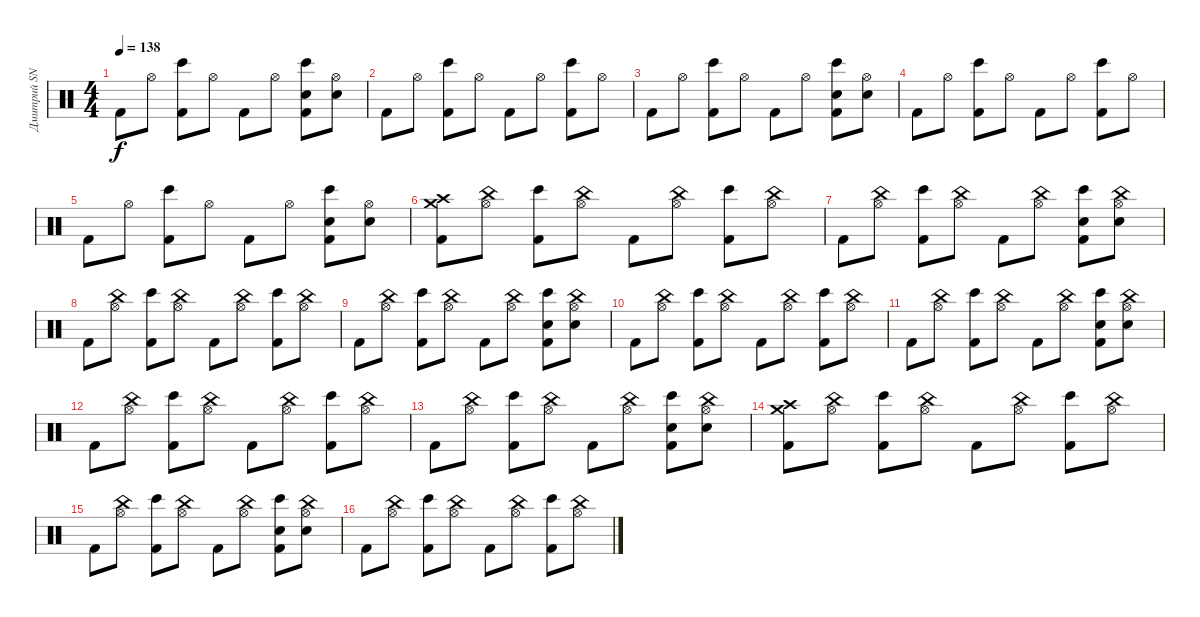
\track ("Дмитрий SNAKE Хакимов (ударные)" "Дмитрий SN") {instrument percussion}
\staff {score}
\articulation defaults
\ts (4 4)
\tempo 138
\clef neutral
\ks c "Kick (hit) 2".8{dy f} "Hi-Hat (open)".8
("Bongo High (hit)" "Kick (hit) 2").8 "Hi-Hat (open)".8 "Kick (hit) 2".8 "Hi-Hat (open)".8 ("Bongo High (hit)" "Electric Snare (hit)" "Kick (hit) 2").8 ("Hi-Hat (open)" "Electric Snare (hit)").8 |
"Kick (hit) 2".8 "Hi-Hat (open)".8 ("Bongo High (hit)" "Kick (hit) 2").8 "Hi-Hat (open)".8 "Kick (hit) 2".8 "Hi-Hat (open)".8 ("Bongo High (hit)" "Kick (hit) 2").8 "Hi-Hat (open)".8 |
"Kick (hit) 2".8 "Hi-Hat (open)".8 ("Bongo High (hit)" "Kick (hit) 2").8 "Hi-Hat (open)".8 "Kick (hit) 2".8 "Hi-Hat (open)".8 ("Bongo High (hit)" "Electric Snare (hit)" "Kick (hit) 2").8 ("Hi-Hat (open)" "Electric Snare (hit)").8 |
"Kick (hit) 2".8 "Hi-Hat (open)".8 ("Bongo High (hit)" "Kick (hit) 2").8 "Hi-Hat (open)".8 "Kick (hit) 2".8 "Hi-Hat (open)".8 ("Bongo High (hit)" "Kick (hit) 2").8 "Hi-Hat (open)".8 |
"Kick (hit) 2".8 "Hi-Hat (open)".8 ("Bongo High (hit)" "Kick (hit) 2").8 "Hi-Hat (open)".8 "Kick (hit) 2".8 "Hi-Hat (open)".8 ("Bongo High (hit)" "Electric Snare (hit)" "Kick (hit) 2").8 ("Hi-Hat (open)" "Electric Snare (hit)").8 |
("Crash high (hit)" "Crash medium (hit)" "Kick (hit) 2").8 ("China (hit)" "Hi-Hat (open)").8 ("Bongo High (hit)" "Kick (hit) 2").8 ("China (hit)" "Hi-Hat (open)").8 "Kick (hit) 2".8 ("China (hit)" "Hi-Hat (open)").8 ("Bongo High (hit)" "Kick (hit) 2").8 ("China (hit)" "Hi-Hat (open)").8 |
"Kick (hit) 2".8 ("China (hit)" "Hi-Hat (open)").8 ("Bongo High (hit)" "Kick (hit) 2").8 ("China (hit)" "Hi-Hat (open)").8 "Kick (hit) 2".8 ("China (hit)" "Hi-Hat (open)").8 ("Bongo High (hit)" "Electric Snare (hit)" "Kick (hit) 2").8 ("China (hit)" "Hi-Hat (open)" "Electric Snare (hit)").8 |
"Kick (hit) 2".8 ("China (hit)" "Hi-Hat (open)").8 ("Bongo High (hit)" "Kick (hit) 2").8 ("China (hit)" "Hi-Hat (open)").8 "Kick (hit) 2".8 ("China (hit)" "Hi-Hat (open)").8 ("Bongo High (hit)" "Kick (hit) 2").8 ("China (hit)" "Hi-Hat (open)").8 |
"Kick (hit) 2".8 ("China (hit)" "Hi-Hat (open)").8 ("Bongo High (hit)" "Kick (hit) 2").8 ("China (hit)" "Hi-Hat (open)").8 "Kick (hit) 2".8 ("China (hit)" "Hi-Hat (open)").8 ("Bongo High (hit)" "Electric Snare (hit)" "Kick (hit) 2").8 ("China (hit)" "Hi-Hat (open)" "Electric Snare (hit)").8 |
"Kick (hit) 2".8 ("China (hit)" "Hi-Hat (open)").8 ("Bongo High (hit)" "Kick (hit) 2").8 ("China (hit)" "Hi-Hat (open)").8 "Kick (hit) 2".8 ("China (hit)" "Hi-Hat (open)").8 ("Bongo High (hit)" "Kick (hit) 2").8 ("China (hit)" "Hi-Hat (open)").8 |
"Kick (hit) 2".8 ("China (hit)" "Hi-Hat (open)").8 ("Bongo High (hit)" "Kick (hit) 2").8 ("China (hit)" "Hi-Hat (open)").8 "Kick (hit) 2".8 ("China (hit)" "Hi-Hat (open)").8 ("Bongo High (hit)" "Electric Snare (hit)" "Kick (hit) 2").8 ("China (hit)" "Hi-Hat (open)" "Electric Snare (hit)").8 |
"Kick (hit) 2".8 ("China (hit)" "Hi-Hat (open)").8 ("Bongo High (hit)" "Kick (hit) 2").8 ("China (hit)" "Hi-Hat (open)").8 "Kick (hit) 2".8 ("China (hit)" "Hi-Hat (open)").8 ("Bongo High (hit)" "Kick (hit) 2").8 ("China (hit)" "Hi-Hat (open)").8 |
"Kick (hit) 2".8 ("China (hit)" "Hi-Hat (open)").8 ("Bongo High (hit)" "Kick (hit) 2").8 ("China (hit)" "Hi-Hat (open)").8 "Kick (hit) 2".8 ("China (hit)" "Hi-Hat (open)").8 ("Bongo High (hit)" "Electric Snare (hit)" "Kick (hit) 2").8 ("China (hit)" "Hi-Hat (open)" "Electric Snare (hit)").8 |
("Crash high (hit)" "Crash medium (hit)" "Kick (hit) 2").8 ("China (hit)" "Hi-Hat (open)").8 ("Bongo High (hit)" "Kick (hit) 2").8 ("China (hit)" "Hi-Hat (open)").8 "Kick (hit) 2".8 ("China (hit)" "Hi-Hat (open)").8 ("Bongo High (hit)" "Kick (hit) 2").8 ("China (hit)" "Hi-Hat (open)").8 |
"Kick (hit) 2".8 ("China (hit)" "Hi-Hat (open)").8 ("Bongo High (hit)" "Kick (hit) 2").8 ("China (hit)" "Hi-Hat (open)").8 "Kick (hit) 2".8 ("China (hit)" "Hi-Hat (open)").8 ("Bongo High (hit)" "Electric Snare (hit)" "Kick (hit) 2").8 ("China (hit)" "Hi-Hat (open)" "Electric Snare (hit)").8 |
"Kick (hit) 2".8 ("China (hit)" "Hi-Hat (open)").8 ("Bongo High (hit)" "Kick (hit) 2").8 ("China (hit)" "Hi-Hat (open)").8 "Kick (hit) 2".8 ("China (hit)" "Hi-Hat (open)").8 ("Bongo High (hit)" "Kick (hit) 2").8 ("China (hit)" "Hi-Hat (open)").8
